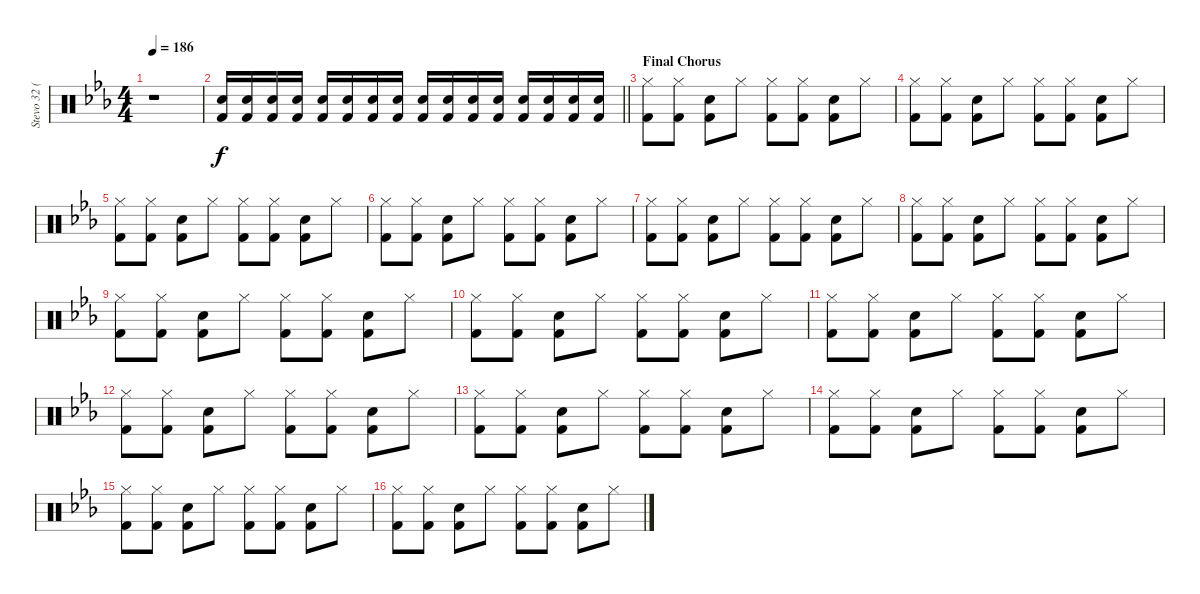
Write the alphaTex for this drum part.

\track ("Stevo 32 (Drums)" "Stevo 32 (") {instrument percussion}
\staff {score}
\articulation defaults
\ts (4 4)
\tempo 186
\clef neutral
\ks eb
r.1{dy f} |
\barLineRight lightlight
("Kick (hit) 2" "Snare (hit) 2").16 ("Kick (hit) 2" "Snare (hit) 2").16 ("Kick (hit) 2" "Snare (hit) 2").16 ("Kick (hit) 2" "Snare (hit) 2").16 ("Kick (hit) 2" "Snare (hit) 2").16 ("Kick (hit) 2" "Snare (hit) 2").16 ("Kick (hit) 2" "Snare (hit) 2").16 ("Kick (hit) 2" "Snare (hit) 2").16 ("Kick (hit) 2" "Snare (hit) 2").16 ("Kick (hit) 2" "Snare (hit) 2").16 ("Kick (hit) 2" "Snare (hit) 2").16 ("Kick (hit) 2" "Snare (hit) 2").16 ("Kick (hit) 2" "Snare (hit) 2").16 ("Kick (hit) 2" "Snare (hit) 2").16 ("Kick (hit) 2" "Snare (hit) 2").16 ("Kick (hit) 2" "Snare (hit) 2").16 |
\section ("" "Final Chorus")
("Kick (hit) 2" "Hi-Hat (closed)").8 ("Kick (hit) 2" "Hi-Hat (closed)").8 ("Kick (hit) 2" "Snare (hit) 2").8 "Hi-Hat (closed)".8 ("Kick (hit) 2" "Hi-Hat (closed)").8 ("Kick (hit) 2" "Hi-Hat (closed)").8 ("Kick (hit) 2" "Snare (hit) 2").8 "Hi-Hat (closed)".8 |
("Kick (hit) 2" "Hi-Hat (closed)").8 ("Kick (hit) 2" "Hi-Hat (closed)").8 ("Kick (hit) 2" "Snare (hit) 2").8 "Hi-Hat (closed)".8 ("Kick (hit) 2" "Hi-Hat (closed)").8 ("Kick (hit) 2" "Hi-Hat (closed)").8 ("Kick (hit) 2" "Snare (hit) 2").8 "Hi-Hat (closed)".8 |
("Kick (hit) 2" "Hi-Hat (closed)").8 ("Kick (hit) 2" "Hi-Hat (closed)").8 ("Kick (hit) 2" "Snare (hit) 2").8 "Hi-Hat (closed)".8 ("Kick (hit) 2" "Hi-Hat (closed)").8 ("Kick (hit) 2" "Hi-Hat (closed)").8 ("Kick (hit) 2" "Snare (hit) 2").8 "Hi-Hat (closed)".8 |
("Kick (hit) 2" "Hi-Hat (closed)").8 ("Kick (hit) 2" "Hi-Hat (closed)").8 ("Kick (hit) 2" "Snare (hit) 2").8 "Hi-Hat (closed)".8 ("Kick (hit) 2" "Hi-Hat (closed)").8 ("Kick (hit) 2" "Hi-Hat (closed)").8 ("Kick (hit) 2" "Snare (hit) 2").8 "Hi-Hat (closed)".8 |
("Kick (hit) 2" "Hi-Hat (closed)").8 ("Kick (hit) 2" "Hi-Hat (closed)").8 ("Kick (hit) 2" "Snare (hit) 2").8 "Hi-Hat (closed)".8 ("Kick (hit) 2" "Hi-Hat (closed)").8 ("Kick (hit) 2" "Hi-Hat (closed)").8 ("Kick (hit) 2" "Snare (hit) 2").8 "Hi-Hat (closed)".8 |
("Kick (hit) 2" "Hi-Hat (closed)").8 ("Kick (hit) 2" "Hi-Hat (closed)").8 ("Kick (hit) 2" "Snare (hit) 2").8 "Hi-Hat (closed)".8 ("Kick (hit) 2" "Hi-Hat (closed)").8 ("Kick (hit) 2" "Hi-Hat (closed)").8 ("Kick (hit) 2" "Snare (hit) 2").8 "Hi-Hat (closed)".8 |
("Kick (hit) 2" "Hi-Hat (closed)").8 ("Kick (hit) 2" "Hi-Hat (closed)").8 ("Kick (hit) 2" "Snare (hit) 2").8 "Hi-Hat (closed)".8 ("Kick (hit) 2" "Hi-Hat (closed)").8 ("Kick (hit) 2" "Hi-Hat (closed)").8 ("Kick (hit) 2" "Snare (hit) 2").8 "Hi-Hat (closed)".8 |
("Kick (hit) 2" "Hi-Hat (closed)").8 ("Kick (hit) 2" "Hi-Hat (closed)").8 ("Kick (hit) 2" "Snare (hit) 2").8 "Hi-Hat (closed)".8 ("Kick (hit) 2" "Hi-Hat (closed)").8 ("Kick (hit) 2" "Hi-Hat (closed)").8 ("Kick (hit) 2" "Snare (hit) 2").8 "Hi-Hat (closed)".8 |
("Kick (hit) 2" "Hi-Hat (closed)").8 ("Kick (hit) 2" "Hi-Hat (closed)").8 ("Kick (hit) 2" "Snare (hit) 2").8 "Hi-Hat (closed)".8 ("Kick (hit) 2" "Hi-Hat (closed)").8 ("Kick (hit) 2" "Hi-Hat (closed)").8 ("Kick (hit) 2" "Snare (hit) 2").8 "Hi-Hat (closed)".8 |
("Kick (hit) 2" "Hi-Hat (closed)").8 ("Kick (hit) 2" "Hi-Hat (closed)").8 ("Kick (hit) 2" "Snare (hit) 2").8 "Hi-Hat (closed)".8 ("Kick (hit) 2" "Hi-Hat (closed)").8 ("Kick (hit) 2" "Hi-Hat (closed)").8 ("Kick (hit) 2" "Snare (hit) 2").8 "Hi-Hat (closed)".8 |
("Kick (hit) 2" "Hi-Hat (closed)").8 ("Kick (hit) 2" "Hi-Hat (closed)").8 ("Kick (hit) 2" "Snare (hit) 2").8 "Hi-Hat (closed)".8 ("Kick (hit) 2" "Hi-Hat (closed)").8 ("Kick (hit) 2" "Hi-Hat (closed)").8 ("Kick (hit) 2" "Snare (hit) 2").8 "Hi-Hat (closed)".8 |
("Kick (hit) 2" "Hi-Hat (closed)").8 ("Kick (hit) 2" "Hi-Hat (closed)").8 ("Kick (hit) 2" "Snare (hit) 2").8 "Hi-Hat (closed)".8 ("Kick (hit) 2" "Hi-Hat (closed)").8 ("Kick (hit) 2" "Hi-Hat (closed)").8 ("Kick (hit) 2" "Snare (hit) 2").8 "Hi-Hat (closed)".8 |
("Kick (hit) 2" "Hi-Hat (closed)").8 ("Kick (hit) 2" "Hi-Hat (closed)").8 ("Kick (hit) 2" "Snare (hit) 2").8 "Hi-Hat (closed)".8 ("Kick (hit) 2" "Hi-Hat (closed)").8 ("Kick (hit) 2" "Hi-Hat (closed)").8 ("Kick (hit) 2" "Snare (hit) 2").8 "Hi-Hat (closed)".8 |
("Kick (hit) 2" "Hi-Hat (closed)").8 ("Kick (hit) 2" "Hi-Hat (closed)").8 ("Kick (hit) 2" "Snare (hit) 2").8 "Hi-Hat (closed)".8 ("Kick (hit) 2" "Hi-Hat (closed)").8 ("Kick (hit) 2" "Hi-Hat (closed)").8 ("Kick (hit) 2" "Snare (hit) 2").8 "Hi-Hat (closed)".8
